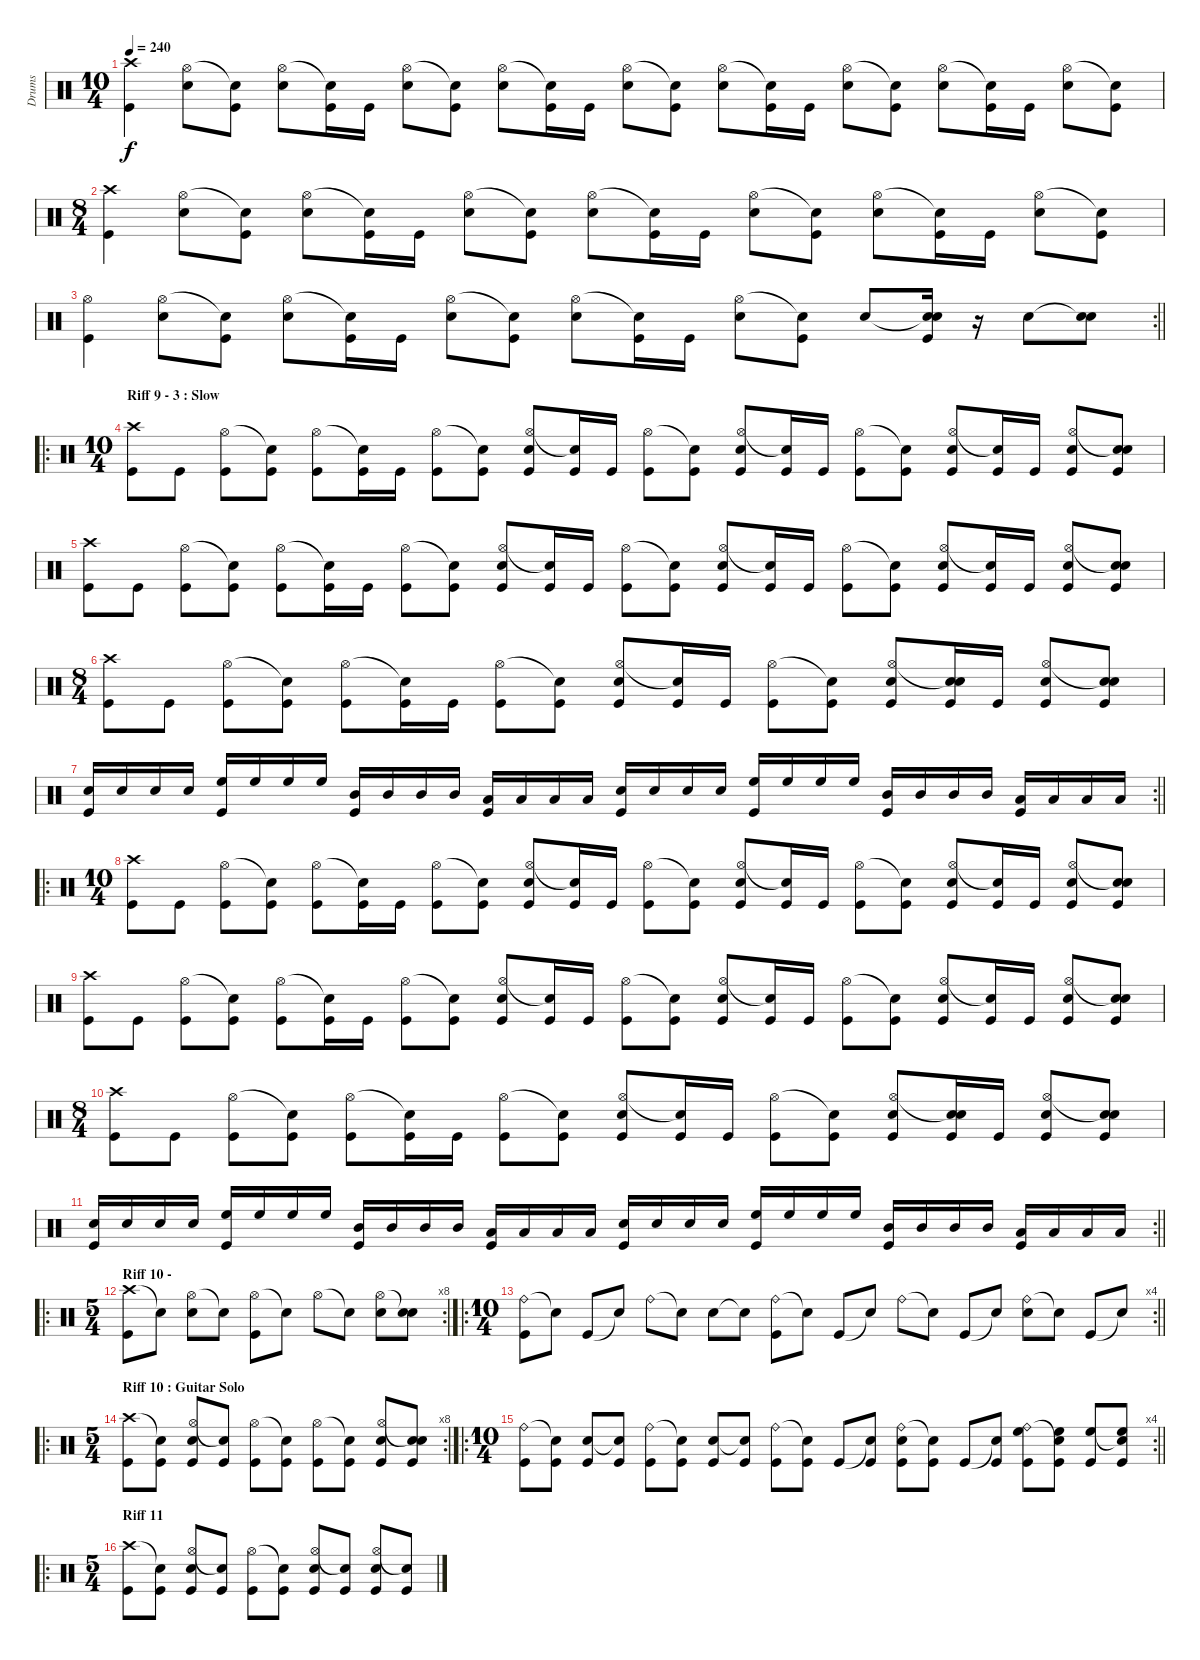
\track ("Drums " "Drums ") {instrument percussion}
\staff {score}
\articulation defaults
\ts (10 4)
\tempo 240
\clef neutral
\ks c
("Crash high (hit)" "Kick (hit)").4{dy f} ("Hi-Hat (open)" "Electric Snare (hit)").8 ("Snare (hit)"{t} "Kick (hit)").8 ("Hi-Hat (open)" "Electric Snare (hit)").8 ("Snare (hit)"{t} "Kick (hit)").16 "Kick (hit)".16 ("Hi-Hat (open)" "Electric Snare (hit)").8 ("Snare (hit)"{t} "Kick (hit)").8 ("Hi-Hat (open)" "Electric Snare (hit)").8 ("Snare (hit)"{t} "Kick (hit)").16 "Kick (hit)".16 ("Hi-Hat (open)" "Electric Snare (hit)").8 ("Snare (hit)"{t} "Kick (hit)").8 ("Hi-Hat (open)" "Electric Snare (hit)").8 ("Snare (hit)"{t} "Kick (hit)").16 "Kick (hit)".16 ("Hi-Hat (open)" "Electric Snare (hit)").8 ("Snare (hit)"{t} "Kick (hit)").8 ("Hi-Hat (open)" "Electric Snare (hit)").8 ("Snare (hit)"{t} "Kick (hit)").16 "Kick (hit)".16 ("Hi-Hat (open)" "Electric Snare (hit)").8 ("Snare (hit)"{t} "Kick (hit)").8 |
\ts (8 4)
("Crash high (hit)" "Kick (hit)").4 ("Hi-Hat (open)" "Electric Snare (hit)").8 ("Snare (hit)"{t} "Kick (hit)").8 ("Hi-Hat (open)" "Electric Snare (hit)").8 ("Snare (hit)"{t} "Kick (hit)").16 "Kick (hit)".16 ("Hi-Hat (open)" "Electric Snare (hit)").8 ("Snare (hit)"{t} "Kick (hit)").8 ("Hi-Hat (open)" "Electric Snare (hit)").8 ("Snare (hit)"{t} "Kick (hit)").16 "Kick (hit)".16 ("Hi-Hat (open)" "Electric Snare (hit)").8 ("Snare (hit)"{t} "Kick (hit)").8 ("Hi-Hat (open)" "Electric Snare (hit)").8 ("Snare (hit)"{t} "Kick (hit)").16 "Kick (hit)".16 ("Hi-Hat (open)" "Electric Snare (hit)").8 ("Snare (hit)"{t} "Kick (hit)").8 |
\rc 2
\barLineRight lightlight
("Hi-Hat (open)" "Kick (hit)").4 ("Hi-Hat (open)" "Electric Snare (hit)").8 ("Snare (hit)"{t} "Kick (hit)").8 ("Hi-Hat (open)" "Electric Snare (hit)").8 ("Snare (hit)"{t} "Kick (hit)").16 "Kick (hit)".16 ("Hi-Hat (open)" "Electric Snare (hit)").8 ("Snare (hit)"{t} "Kick (hit)").8 ("Hi-Hat (open)" "Electric Snare (hit)").8 ("Snare (hit)"{t} "Kick (hit)").16 "Kick (hit)".16 ("Hi-Hat (open)" "Electric Snare (hit)").8 ("Snare (hit)"{t} "Kick (hit)").8 "Electric Snare (hit)".8 ("Snare (hit)"{t} "Electric Snare (hit)" "Kick (hit)").16 r.16 "Electric Snare (hit)".8 ("Snare (hit)"{t} "Electric Snare (hit)").8 |
\ro
\ts (10 4)
\section ("" "Riff 9 - 3 : Slow")
("Crash high (hit)" "Kick (hit)").8 "Kick (hit)".8 ("Hi-Hat (open)" "Kick (hit)").8 ("Snare (hit)"{t} "Kick (hit)").8 ("Hi-Hat (open)" "Kick (hit)").8 ("Snare (hit)"{t} "Kick (hit)").16 "Kick (hit)".16 ("Hi-Hat (open)" "Kick (hit)").8 ("Snare (hit)"{t} "Kick (hit)").8 ("Hi-Hat (open)" "Electric Snare (hit)" "Kick (hit)").8 ("Snare (hit)"{t} "Kick (hit)").16 "Kick (hit)".16 ("Hi-Hat (open)" "Kick (hit)").8 ("Snare (hit)"{t} "Kick (hit)").8 ("Hi-Hat (open)" "Electric Snare (hit)" "Kick (hit)").8 ("Snare (hit)"{t} "Kick (hit)").16 "Kick (hit)".16 ("Hi-Hat (open)" "Kick (hit)").8 ("Snare (hit)"{t} "Kick (hit)").8 ("Hi-Hat (open)" "Electric Snare (hit)" "Kick (hit)").8 ("Snare (hit)"{t} "Kick (hit)").16 "Kick (hit)".16 ("Hi-Hat (open)" "Electric Snare (hit)" "Kick (hit)").8 ("Snare (hit)"{t} "Electric Snare (hit)" "Kick (hit)").8 |
("Crash high (hit)" "Kick (hit)").8 "Kick (hit)".8 ("Hi-Hat (open)" "Kick (hit)").8 ("Snare (hit)"{t} "Kick (hit)").8 ("Hi-Hat (open)" "Kick (hit)").8 ("Snare (hit)"{t} "Kick (hit)").16 "Kick (hit)".16 ("Hi-Hat (open)" "Kick (hit)").8 ("Snare (hit)"{t} "Kick (hit)").8 ("Hi-Hat (open)" "Electric Snare (hit)" "Kick (hit)").8 ("Snare (hit)"{t} "Kick (hit)").16 "Kick (hit)".16 ("Hi-Hat (open)" "Kick (hit)").8 ("Snare (hit)"{t} "Kick (hit)").8 ("Hi-Hat (open)" "Electric Snare (hit)" "Kick (hit)").8 ("Snare (hit)"{t} "Kick (hit)").16 "Kick (hit)".16 ("Hi-Hat (open)" "Kick (hit)").8 ("Snare (hit)"{t} "Kick (hit)").8 ("Hi-Hat (open)" "Electric Snare (hit)" "Kick (hit)").8 ("Snare (hit)"{t} "Kick (hit)").16 "Kick (hit)".16 ("Hi-Hat (open)" "Electric Snare (hit)" "Kick (hit)").8 ("Snare (hit)"{t} "Electric Snare (hit)" "Kick (hit)").8 |
\ts (8 4)
("Crash high (hit)" "Kick (hit)").8 "Kick (hit)".8 ("Hi-Hat (open)" "Kick (hit)").8 ("Snare (hit)"{t} "Kick (hit)").8 ("Hi-Hat (open)" "Kick (hit)").8 ("Snare (hit)"{t} "Kick (hit)").16 "Kick (hit)".16 ("Hi-Hat (open)" "Kick (hit)").8 ("Snare (hit)"{t} "Kick (hit)").8 ("Hi-Hat (open)" "Electric Snare (hit)" "Kick (hit)").8 ("Snare (hit)"{t} "Kick (hit)").16 "Kick (hit)".16 ("Hi-Hat (open)" "Kick (hit)").8 ("Snare (hit)"{t} "Kick (hit)").8 ("Hi-Hat (open)" "Electric Snare (hit)" "Kick (hit)").8 ("Snare (hit)"{t} "Electric Snare (hit)" "Kick (hit)").16 "Kick (hit)".16 ("Hi-Hat (open)" "Electric Snare (hit)" "Kick (hit)").8 ("Snare (hit)"{t} "Electric Snare (hit)" "Kick (hit)").8 |
\rc 2
\barLineRight lightlight
("Electric Snare (hit)" "Kick (hit)").16 "Electric Snare (hit)".16 "Electric Snare (hit)".16 "Electric Snare (hit)".16 ("High Floor Tom (hit)" "Kick (hit)").16 "High Floor Tom (hit)".16 "High Floor Tom (hit)".16 "High Floor Tom (hit)".16 ("Mid Tom (hit)" "Kick (hit)").16 "Mid Tom (hit)".16 "Mid Tom (hit)".16 "Mid Tom (hit)".16 ("Low Tom (hit)" "Kick (hit)").16 "Low Tom (hit)".16 "Low Tom (hit)".16 "Low Tom (hit)".16 ("Electric Snare (hit)" "Kick (hit)").16 "Electric Snare (hit)".16 "Electric Snare (hit)".16 "Electric Snare (hit)".16 ("High Floor Tom (hit)" "Kick (hit)").16 "High Floor Tom (hit)".16 "High Floor Tom (hit)".16 "High Floor Tom (hit)".16 ("Mid Tom (hit)" "Kick (hit)").16 "Mid Tom (hit)".16 "Mid Tom (hit)".16 "Mid Tom (hit)".16 ("Low Tom (hit)" "Kick (hit)").16 "Low Tom (hit)".16 "Low Tom (hit)".16 "Low Tom (hit)".16 |
\ro
\ts (10 4)
("Crash high (hit)" "Kick (hit)").8 "Kick (hit)".8 ("Hi-Hat (open)" "Kick (hit)").8 ("Snare (hit)"{t} "Kick (hit)").8 ("Hi-Hat (open)" "Kick (hit)").8 ("Snare (hit)"{t} "Kick (hit)").16 "Kick (hit)".16 ("Hi-Hat (open)" "Kick (hit)").8 ("Snare (hit)"{t} "Kick (hit)").8 ("Hi-Hat (open)" "Electric Snare (hit)" "Kick (hit)").8 ("Snare (hit)"{t} "Kick (hit)").16 "Kick (hit)".16 ("Hi-Hat (open)" "Kick (hit)").8 ("Snare (hit)"{t} "Kick (hit)").8 ("Hi-Hat (open)" "Electric Snare (hit)" "Kick (hit)").8 ("Snare (hit)"{t} "Kick (hit)").16 "Kick (hit)".16 ("Hi-Hat (open)" "Kick (hit)").8 ("Snare (hit)"{t} "Kick (hit)").8 ("Hi-Hat (open)" "Electric Snare (hit)" "Kick (hit)").8 ("Snare (hit)"{t} "Kick (hit)").16 "Kick (hit)".16 ("Hi-Hat (open)" "Electric Snare (hit)" "Kick (hit)").8 ("Snare (hit)"{t} "Electric Snare (hit)" "Kick (hit)").8 |
("Crash high (hit)" "Kick (hit)").8 "Kick (hit)".8 ("Hi-Hat (open)" "Kick (hit)").8 ("Snare (hit)"{t} "Kick (hit)").8 ("Hi-Hat (open)" "Kick (hit)").8 ("Snare (hit)"{t} "Kick (hit)").16 "Kick (hit)".16 ("Hi-Hat (open)" "Kick (hit)").8 ("Snare (hit)"{t} "Kick (hit)").8 ("Hi-Hat (open)" "Electric Snare (hit)" "Kick (hit)").8 ("Snare (hit)"{t} "Kick (hit)").16 "Kick (hit)".16 ("Hi-Hat (open)" "Kick (hit)").8 ("Snare (hit)"{t} "Kick (hit)").8 ("Hi-Hat (open)" "Electric Snare (hit)" "Kick (hit)").8 ("Snare (hit)"{t} "Kick (hit)").16 "Kick (hit)".16 ("Hi-Hat (open)" "Kick (hit)").8 ("Snare (hit)"{t} "Kick (hit)").8 ("Hi-Hat (open)" "Electric Snare (hit)" "Kick (hit)").8 ("Snare (hit)"{t} "Kick (hit)").16 "Kick (hit)".16 ("Hi-Hat (open)" "Electric Snare (hit)" "Kick (hit)").8 ("Snare (hit)"{t} "Electric Snare (hit)" "Kick (hit)").8 |
\ts (8 4)
("Crash high (hit)" "Kick (hit)").8 "Kick (hit)".8 ("Hi-Hat (open)" "Kick (hit)").8 ("Snare (hit)"{t} "Kick (hit)").8 ("Hi-Hat (open)" "Kick (hit)").8 ("Snare (hit)"{t} "Kick (hit)").16 "Kick (hit)".16 ("Hi-Hat (open)" "Kick (hit)").8 ("Snare (hit)"{t} "Kick (hit)").8 ("Hi-Hat (open)" "Electric Snare (hit)" "Kick (hit)").8 ("Snare (hit)"{t} "Kick (hit)").16 "Kick (hit)".16 ("Hi-Hat (open)" "Kick (hit)").8 ("Snare (hit)"{t} "Kick (hit)").8 ("Hi-Hat (open)" "Electric Snare (hit)" "Kick (hit)").8 ("Snare (hit)"{t} "Electric Snare (hit)" "Kick (hit)").16 "Kick (hit)".16 ("Hi-Hat (open)" "Electric Snare (hit)" "Kick (hit)").8 ("Snare (hit)"{t} "Electric Snare (hit)" "Kick (hit)").8 |
\rc 2
\barLineRight lightlight
("Electric Snare (hit)" "Kick (hit)").16 "Electric Snare (hit)".16 "Electric Snare (hit)".16 "Electric Snare (hit)".16 ("High Floor Tom (hit)" "Kick (hit)").16 "High Floor Tom (hit)".16 "High Floor Tom (hit)".16 "High Floor Tom (hit)".16 ("Mid Tom (hit)" "Kick (hit)").16 "Mid Tom (hit)".16 "Mid Tom (hit)".16 "Mid Tom (hit)".16 ("Low Tom (hit)" "Kick (hit)").16 "Low Tom (hit)".16 "Low Tom (hit)".16 "Low Tom (hit)".16 ("Electric Snare (hit)" "Kick (hit)").16 "Electric Snare (hit)".16 "Electric Snare (hit)".16 "Electric Snare (hit)".16 ("High Floor Tom (hit)" "Kick (hit)").16 "High Floor Tom (hit)".16 "High Floor Tom (hit)".16 "High Floor Tom (hit)".16 ("Mid Tom (hit)" "Kick (hit)").16 "Mid Tom (hit)".16 "Mid Tom (hit)".16 "Mid Tom (hit)".16 ("Low Tom (hit)" "Kick (hit)").16 "Low Tom (hit)".16 "Low Tom (hit)".16 "Low Tom (hit)".16 |
\ro
\rc 8
\ts (5 4)
\section ("" "Riff 10 - ")
("Crash high (hit)" "Kick (hit)").8 "Snare (hit)"{t}.8 ("Hi-Hat (open)" "Electric Snare (hit)").8 "Snare (hit)"{t}.8 ("Hi-Hat (open)" "Kick (hit)").8 "Snare (hit)"{t}.8 "Hi-Hat (open)".8 "Snare (hit)"{t}.8 ("Hi-Hat (open)" "Electric Snare (hit)").8 ("Snare (hit)"{t} "Electric Snare (hit)").8 |
\ro
\rc 4
\ts (10 4)
\barLineRight lightlight
("Ride (bell)" "Kick (hit)").8 "Snare (hit)"{t}.8 "Kick (hit)".8 "Snare (hit)"{t}.8 "Ride (bell)".8 "Snare (hit)"{t}.8 "Electric Snare (hit)".8 "Snare (hit)"{t}.8 ("Ride (bell)" "Kick (hit)").8 "Snare (hit)"{t}.8 "Kick (hit)".8 "Snare (hit)"{t}.8 "Ride (bell)".8 "Snare (hit)"{t}.8 "Kick (hit)".8 "Snare (hit)"{t}.8 ("Ride (bell)" "Electric Snare (hit)").8 "Snare (hit)"{t}.8 "Kick (hit)".8 "Snare (hit)"{t}.8 |
\ro
\rc 8
\ts (5 4)
\section ("" "Riff 10 : Guitar Solo")
("Crash high (hit)" "Kick (hit)").8 ("Snare (hit)"{t} "Kick (hit)").8 ("Hi-Hat (open)" "Electric Snare (hit)" "Kick (hit)").8 ("Snare (hit)"{t} "Kick (hit)").8 ("Hi-Hat (open)" "Kick (hit)").8 ("Snare (hit)"{t} "Kick (hit)").8 ("Hi-Hat (open)" "Kick (hit)").8 ("Snare (hit)"{t} "Kick (hit)").8 ("Hi-Hat (open)" "Electric Snare (hit)" "Kick (hit)").8 ("Snare (hit)"{t} "Electric Snare (hit)" "Kick (hit)").8 |
\ro
\rc 4
\ts (10 4)
\barLineRight lightlight
("Ride (bell)" "Kick (hit)").8 ("Snare (hit)"{t} "Kick (hit)").8 ("Electric Snare (hit)" "Kick (hit)").8 ("Snare (hit)"{t} "Kick (hit)").8 ("Ride (bell)" "Kick (hit)").8 ("Snare (hit)"{t} "Kick (hit)").8 ("Electric Snare (hit)" "Kick (hit)").8 ("Snare (hit)"{t} "Kick (hit)").8 ("Ride (bell)" "Kick (hit)").8 ("Snare (hit)"{t} "Kick (hit)").8 "Kick (hit)".8 ("Snare (hit)"{t} "Kick (hit)").8 ("Ride (bell)" "Electric Snare (hit)" "Kick (hit)").8 ("Snare (hit)"{t} "Kick (hit)").8 "Kick (hit)".8 ("Snare (hit)"{t} "Kick (hit)").8 ("Ride (bell)" "High Floor Tom (hit)" "Kick (hit)").8 ("Snare (hit)"{t} "High Floor Tom (hit)" "Kick (hit)").8 ("High Floor Tom (hit)" "Kick (hit)").8 ("Snare (hit)"{t} "High Floor Tom (hit)" "Kick (hit)").8 |
\ro
\ts (5 4)
\section ("" "Riff 11")
("Crash high (hit)" "Kick (hit)").8 ("Snare (hit)"{t} "Kick (hit)").8 ("Hi-Hat (open)" "Electric Snare (hit)" "Kick (hit)").8 ("Snare (hit)"{t} "Kick (hit)").8 ("Hi-Hat (open)" "Kick (hit)").8 ("Snare (hit)"{t} "Kick (hit)").8 ("Hi-Hat (open)" "Electric Snare (hit)" "Kick (hit)").8 ("Snare (hit)"{t} "Kick (hit)").8 ("Hi-Hat (open)" "Electric Snare (hit)" "Kick (hit)").8 ("Snare (hit)"{t} "Kick (hit)").8
